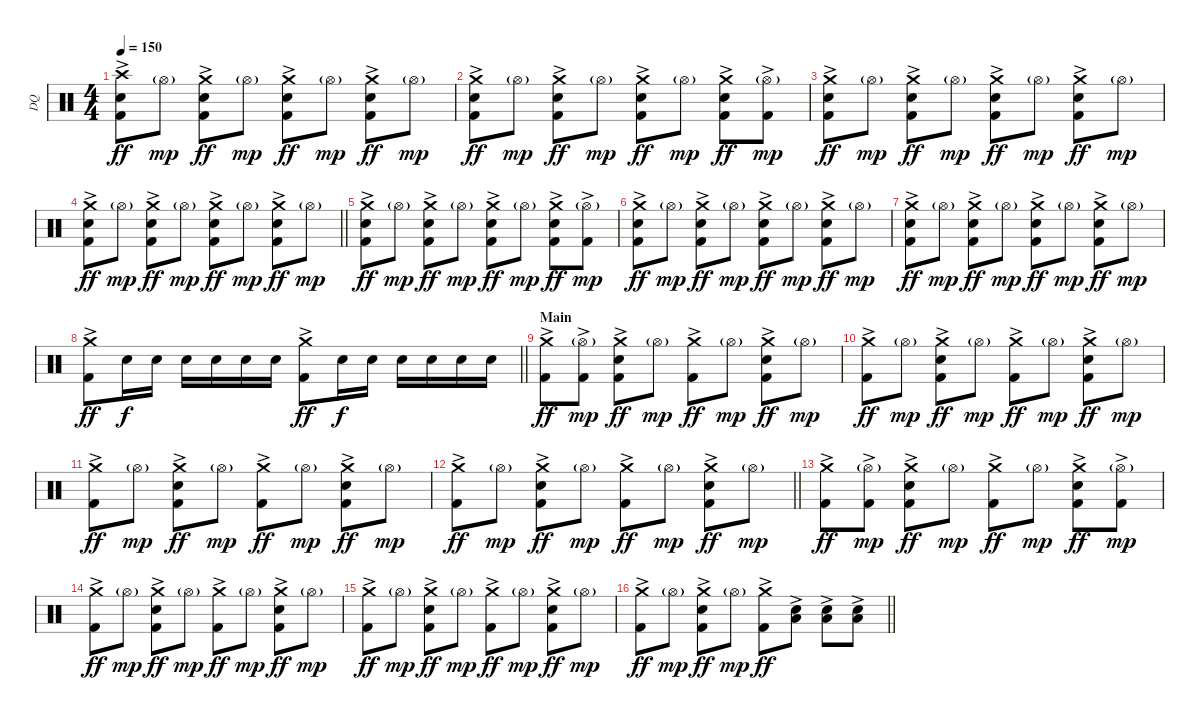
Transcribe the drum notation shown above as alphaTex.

\track ("DQ" "DQ") {instrument percussion}
\staff {score}
\articulation defaults
\ts (4 4)
\section ("" "")
\tempo 150
\clef neutral
\ks c
("Kick (hit) 2"{ac} "Snare (hit) 2"{ac} "Crash high (hit)").8{dy ff} "Hi-Hat (open)"{g}.8{dy mp} ("Kick (hit) 2"{ac} "Snare (hit) 2"{ac} "Crash medium (hit)").8{dy ff} "Hi-Hat (open)"{g}.8{dy mp} ("Kick (hit) 2"{ac} "Snare (hit) 2"{ac} "Crash medium (hit)").8{dy ff} "Hi-Hat (open)"{g}.8{dy mp} ("Kick (hit) 2"{ac} "Snare (hit) 2"{ac} "Crash medium (hit)").8{dy ff} "Hi-Hat (open)"{g}.8{dy mp} |
("Kick (hit) 2"{ac} "Snare (hit) 2"{ac} "Crash medium (hit)").8{dy ff} "Hi-Hat (open)"{g}.8{dy mp} ("Kick (hit) 2"{ac} "Snare (hit) 2"{ac} "Crash medium (hit)").8{dy ff} "Hi-Hat (open)"{g}.8{dy mp} ("Kick (hit) 2"{ac} "Snare (hit) 2"{ac} "Crash medium (hit)").8{dy ff} "Hi-Hat (open)"{g}.8{dy mp} ("Kick (hit) 2"{ac} "Snare (hit) 2"{ac} "Crash medium (hit)").8{dy ff} ("Kick (hit) 2"{ac} "Hi-Hat (open)"{g}).8{dy mp} |
("Kick (hit) 2"{ac} "Snare (hit) 2"{ac} "Crash medium (hit)").8{dy ff} "Hi-Hat (open)"{g}.8{dy mp} ("Kick (hit) 2"{ac} "Snare (hit) 2"{ac} "Crash medium (hit)").8{dy ff} "Hi-Hat (open)"{g}.8{dy mp} ("Kick (hit) 2"{ac} "Snare (hit) 2"{ac} "Crash medium (hit)").8{dy ff} "Hi-Hat (open)"{g}.8{dy mp} ("Kick (hit) 2"{ac} "Snare (hit) 2"{ac} "Crash medium (hit)").8{dy ff} "Hi-Hat (open)"{g}.8{dy mp} |
\barLineRight lightlight
("Kick (hit) 2"{ac} "Snare (hit) 2"{ac} "Crash medium (hit)").8{dy ff} "Hi-Hat (open)"{g}.8{dy mp} ("Kick (hit) 2"{ac} "Snare (hit) 2"{ac} "Crash medium (hit)").8{dy ff} "Hi-Hat (open)"{g}.8{dy mp} ("Kick (hit) 2"{ac} "Snare (hit) 2"{ac} "Crash medium (hit)").8{dy ff} "Hi-Hat (open)"{g}.8{dy mp} ("Kick (hit) 2"{ac} "Snare (hit) 2"{ac} "Crash medium (hit)").8{dy ff} "Hi-Hat (open)"{g}.8{dy mp} |
\section ("" "")
("Kick (hit) 2"{ac} "Snare (hit) 2"{ac} "Crash medium (hit)").8{dy ff} "Hi-Hat (open)"{g}.8{dy mp} ("Kick (hit) 2"{ac} "Snare (hit) 2"{ac} "Crash medium (hit)").8{dy ff} "Hi-Hat (open)"{g}.8{dy mp} ("Kick (hit) 2"{ac} "Snare (hit) 2"{ac} "Crash medium (hit)").8{dy ff} "Hi-Hat (open)"{g}.8{dy mp} ("Kick (hit) 2"{ac} "Snare (hit) 2"{ac} "Crash medium (hit)").8{dy ff} ("Kick (hit) 2"{ac} "Hi-Hat (open)"{g}).8{dy mp} |
("Kick (hit) 2"{ac} "Snare (hit) 2"{ac} "Crash medium (hit)").8{dy ff} "Hi-Hat (open)"{g}.8{dy mp} ("Kick (hit) 2"{ac} "Snare (hit) 2"{ac} "Crash medium (hit)").8{dy ff} "Hi-Hat (open)"{g}.8{dy mp} ("Kick (hit) 2"{ac} "Snare (hit) 2"{ac} "Crash medium (hit)").8{dy ff} "Hi-Hat (open)"{g}.8{dy mp} ("Kick (hit) 2"{ac} "Snare (hit) 2"{ac} "Crash medium (hit)").8{dy ff} "Hi-Hat (open)"{g}.8{dy mp} |
("Kick (hit) 2"{ac} "Snare (hit) 2"{ac} "Crash medium (hit)").8{dy ff} "Hi-Hat (open)"{g}.8{dy mp} ("Kick (hit) 2"{ac} "Snare (hit) 2"{ac} "Crash medium (hit)").8{dy ff} "Hi-Hat (open)"{g}.8{dy mp} ("Kick (hit) 2"{ac} "Snare (hit) 2"{ac} "Crash medium (hit)").8{dy ff} "Hi-Hat (open)"{g}.8{dy mp} ("Kick (hit) 2"{ac} "Snare (hit) 2"{ac} "Crash medium (hit)").8{dy ff} "Hi-Hat (open)"{g}.8{dy mp} |
\barLineRight lightlight
("Kick (hit) 2"{ac} "Crash medium (hit)").8{dy ff} "Snare (hit) 2".16{dy f} "Snare (hit) 2".16 "Snare (hit) 2".16 "Snare (hit) 2".16 "Snare (hit) 2".16 "Snare (hit) 2".16 ("Kick (hit) 2"{ac} "Crash medium (hit)").8{dy ff} "Snare (hit) 2".16{dy f} "Snare (hit) 2".16 "Snare (hit) 2".16 "Snare (hit) 2".16 "Snare (hit) 2".16 "Snare (hit) 2".16 |
\section ("" "Main")
("Kick (hit) 2"{ac} "Crash medium (hit)").8{dy ff} ("Kick (hit) 2"{ac} "Hi-Hat (open)"{g}).8{dy mp} ("Kick (hit) 2"{ac} "Snare (hit) 2"{ac} "Crash medium (hit)").8{dy ff} "Hi-Hat (open)"{g}.8{dy mp} ("Kick (hit) 2"{ac} "Crash medium (hit)").8{dy ff} "Hi-Hat (open)"{g}.8{dy mp} ("Kick (hit) 2"{ac} "Snare (hit) 2"{ac} "Crash medium (hit)").8{dy ff} "Hi-Hat (open)"{g}.8{dy mp} |
("Kick (hit) 2"{ac} "Crash medium (hit)").8{dy ff} "Hi-Hat (open)"{g}.8{dy mp} ("Kick (hit) 2"{ac} "Snare (hit) 2"{ac} "Crash medium (hit)").8{dy ff} "Hi-Hat (open)"{g}.8{dy mp} ("Kick (hit) 2"{ac} "Crash medium (hit)").8{dy ff} "Hi-Hat (open)"{g}.8{dy mp} ("Kick (hit) 2"{ac} "Snare (hit) 2"{ac} "Crash medium (hit)").8{dy ff} "Hi-Hat (open)"{g}.8{dy mp} |
("Kick (hit) 2"{ac} "Crash medium (hit)").8{dy ff} "Hi-Hat (open)"{g}.8{dy mp} ("Kick (hit) 2"{ac} "Snare (hit) 2"{ac} "Crash medium (hit)").8{dy ff} "Hi-Hat (open)"{g}.8{dy mp} ("Kick (hit) 2"{ac} "Crash medium (hit)").8{dy ff} "Hi-Hat (open)"{g}.8{dy mp} ("Kick (hit) 2"{ac} "Snare (hit) 2"{ac} "Crash medium (hit)").8{dy ff} "Hi-Hat (open)"{g}.8{dy mp} |
\barLineRight lightlight
("Kick (hit) 2"{ac} "Crash medium (hit)").8{dy ff} "Hi-Hat (open)"{g}.8{dy mp} ("Kick (hit) 2"{ac} "Snare (hit) 2"{ac} "Crash medium (hit)").8{dy ff} "Hi-Hat (open)"{g}.8{dy mp} ("Kick (hit) 2"{ac} "Crash medium (hit)").8{dy ff} "Hi-Hat (open)"{g}.8{dy mp} ("Kick (hit) 2"{ac} "Snare (hit) 2"{ac} "Crash medium (hit)").8{dy ff} "Hi-Hat (open)"{g}.8{dy mp} |
\section ("" "")
("Kick (hit) 2"{ac} "Crash medium (hit)").8{dy ff} ("Kick (hit) 2"{ac} "Hi-Hat (open)"{g}).8{dy mp} ("Kick (hit) 2"{ac} "Snare (hit) 2"{ac} "Crash medium (hit)").8{dy ff} "Hi-Hat (open)"{g}.8{dy mp} ("Kick (hit) 2"{ac} "Crash medium (hit)").8{dy ff} "Hi-Hat (open)"{g}.8{dy mp} ("Kick (hit) 2"{ac} "Snare (hit) 2"{ac} "Crash medium (hit)").8{dy ff} ("Kick (hit) 2"{ac} "Hi-Hat (open)"{g}).8{dy mp} |
("Kick (hit) 2"{ac} "Crash medium (hit)").8{dy ff} "Hi-Hat (open)"{g}.8{dy mp} ("Kick (hit) 2"{ac} "Snare (hit) 2"{ac} "Crash medium (hit)").8{dy ff} "Hi-Hat (open)"{g}.8{dy mp} ("Kick (hit) 2"{ac} "Crash medium (hit)").8{dy ff} "Hi-Hat (open)"{g}.8{dy mp} ("Kick (hit) 2"{ac} "Snare (hit) 2"{ac} "Crash medium (hit)").8{dy ff} "Hi-Hat (open)"{g}.8{dy mp} |
("Kick (hit) 2"{ac} "Crash medium (hit)").8{dy ff} "Hi-Hat (open)"{g}.8{dy mp} ("Kick (hit) 2"{ac} "Snare (hit) 2"{ac} "Crash medium (hit)").8{dy ff} "Hi-Hat (open)"{g}.8{dy mp} ("Kick (hit) 2"{ac} "Crash medium (hit)").8{dy ff} "Hi-Hat (open)"{g}.8{dy mp} ("Kick (hit) 2"{ac} "Snare (hit) 2"{ac} "Crash medium (hit)").8{dy ff} "Hi-Hat (open)"{g}.8{dy mp} |
\barLineRight lightlight
("Kick (hit) 2"{ac} "Crash medium (hit)").8{dy ff} "Hi-Hat (open)"{g}.8{dy mp} ("Kick (hit) 2"{ac} "Snare (hit) 2"{ac} "Crash medium (hit)").8{dy ff} "Hi-Hat (open)"{g}.8{dy mp} ("Kick (hit) 2"{ac} "Crash medium (hit)").8{dy ff} ("Snare (hit) 2"{ac} "Low Tom (hit)"{ac}).8 ("Snare (hit) 2"{ac} "Low Tom (hit)"{ac}).8 ("Snare (hit) 2"{ac} "Low Tom (hit)"{ac}).8
